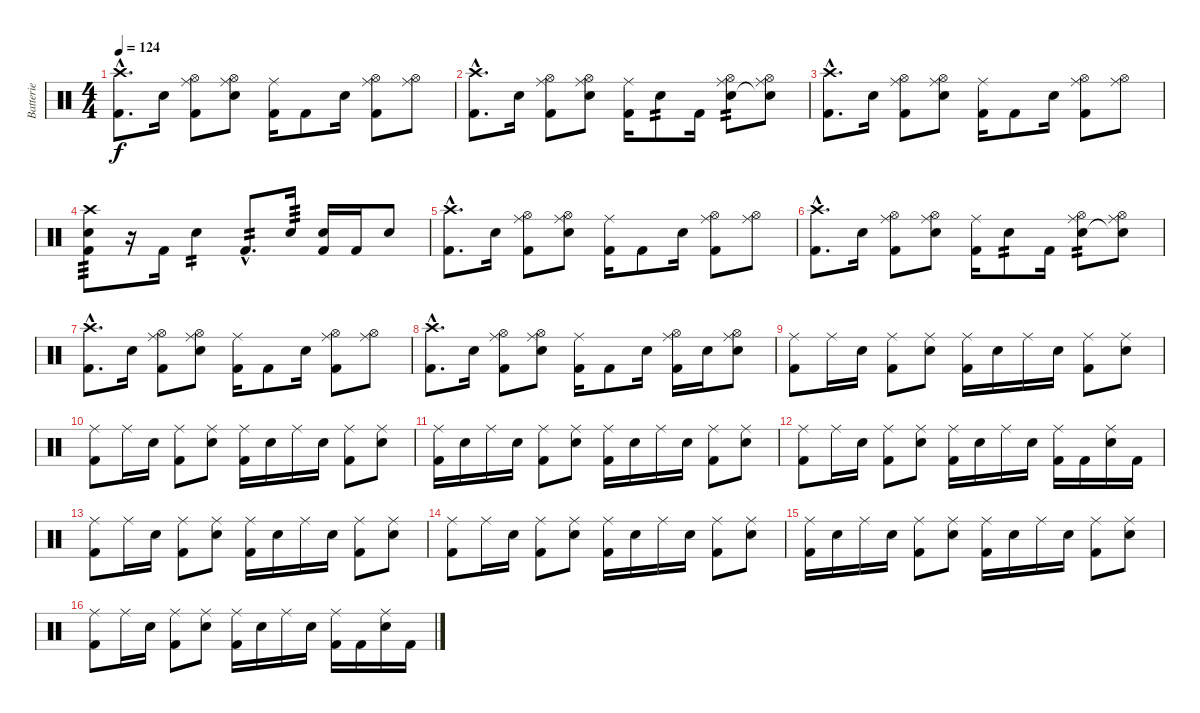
\track ("Batterie" "Batterie") {instrument percussion}
\staff {score}
\articulation defaults
\ts (4 4)
\tempo 124
\clef neutral
\ks c
("Crash high (hit)"{hac} "Kick (hit) 2"{hac}).8{d dy f} "Electric Snare (hit)".16 ("Ride (middle)" "Hi-Hat (open)" "Kick (hit) 2").8 ("Ride (middle)" "Hi-Hat (open)" "Electric Snare (hit)").8 ("Ride (middle)" "Kick (hit) 2").16 "Kick (hit) 2".8 "Electric Snare (hit)".16 ("Ride (middle)" "Hi-Hat (open)" "Kick (hit) 2").8 ("Ride (middle)" "Hi-Hat (open)").8 |
("Crash high (hit)"{hac} "Kick (hit) 2"{hac}).8{d} "Electric Snare (hit)".16 ("Ride (middle)" "Hi-Hat (open)" "Kick (hit) 2").8 ("Ride (middle)" "Hi-Hat (open)" "Electric Snare (hit)").8 ("Ride (middle)" "Kick (hit) 2").16 "Electric Snare (hit)".8{tp 2} "Kick (hit) 2".16 ("Ride (middle)" "Hi-Hat (open)" "Electric Snare (hit)").8{tp 2} ("Ride (middle)" "Hi-Hat (open)" "Snare (hit)"{t}).8 |
("Crash high (hit)"{hac} "Kick (hit) 2"{hac}).8{d} "Electric Snare (hit)".16 ("Ride (middle)" "Hi-Hat (open)" "Kick (hit) 2").8 ("Ride (middle)" "Hi-Hat (open)" "Electric Snare (hit)").8 ("Ride (middle)" "Kick (hit) 2").16 "Kick (hit) 2".8 "Electric Snare (hit)".16 ("Ride (middle)" "Hi-Hat (open)" "Kick (hit) 2").8 ("Ride (middle)" "Hi-Hat (open)").8 |
("Crash high (hit)" "Electric Snare (hit)" "Kick (hit) 2").8{tp 3} r.16 "Kick (hit) 2".16 "Electric Snare (hit)".4{tp 2} "Kick (hit) 2"{hac}.8{d tp 2} "Electric Snare (hit)".16{tp 3} ("Electric Snare (hit)" "Kick (hit) 2").16 "Kick (hit) 2".16 "Electric Snare (hit)".8 |
("Crash high (hit)"{hac} "Kick (hit) 2"{hac}).8{d} "Electric Snare (hit)".16 ("Ride (middle)" "Hi-Hat (open)" "Kick (hit) 2").8 ("Ride (middle)" "Hi-Hat (open)" "Electric Snare (hit)").8 ("Ride (middle)" "Kick (hit) 2").16 "Kick (hit) 2".8 "Electric Snare (hit)".16 ("Ride (middle)" "Hi-Hat (open)" "Kick (hit) 2").8 ("Ride (middle)" "Hi-Hat (open)").8 |
("Crash high (hit)"{hac} "Kick (hit) 2"{hac}).8{d} "Electric Snare (hit)".16 ("Ride (middle)" "Hi-Hat (open)" "Kick (hit) 2").8 ("Ride (middle)" "Hi-Hat (open)" "Electric Snare (hit)").8 ("Ride (middle)" "Kick (hit) 2").16 "Electric Snare (hit)".8{tp 2} "Kick (hit) 2".16 ("Ride (middle)" "Hi-Hat (open)" "Electric Snare (hit)").8{tp 2} ("Ride (middle)" "Hi-Hat (open)" "Snare (hit)"{t}).8 |
("Crash high (hit)"{hac} "Kick (hit) 2"{hac}).8{d} "Electric Snare (hit)".16 ("Ride (middle)" "Hi-Hat (open)" "Kick (hit) 2").8 ("Ride (middle)" "Hi-Hat (open)" "Electric Snare (hit)").8 ("Ride (middle)" "Kick (hit) 2").16 "Kick (hit) 2".8 "Electric Snare (hit)".16 ("Ride (middle)" "Hi-Hat (open)" "Kick (hit) 2").8 ("Ride (middle)" "Hi-Hat (open)").8 |
("Crash high (hit)"{hac} "Kick (hit) 2"{hac}).8{d} "Electric Snare (hit)".16 ("Ride (middle)" "Hi-Hat (open)" "Kick (hit) 2").8 ("Ride (middle)" "Hi-Hat (open)" "Electric Snare (hit)").8 ("Ride (middle)" "Kick (hit) 2").16 "Kick (hit) 2".8 "Electric Snare (hit)".16 ("Ride (middle)" "Hi-Hat (open)" "Kick (hit) 2").16 "Electric Snare (hit)".16 ("Ride (middle)" "Hi-Hat (open)" "Electric Snare (hit)").8 |
("Ride (middle)" "Kick (hit) 2").8 "Ride (middle)".16 "Electric Snare (hit)".16 ("Ride (middle)" "Kick (hit) 2").8 ("Ride (middle)" "Electric Snare (hit)").8 ("Ride (middle)" "Kick (hit) 2").16 "Electric Snare (hit)".16 "Ride (middle)".16 "Electric Snare (hit)".16 ("Ride (middle)" "Kick (hit) 2").8 ("Ride (middle)" "Electric Snare (hit)").8 |
("Ride (middle)" "Kick (hit) 2").8 "Ride (middle)".16 "Electric Snare (hit)".16 ("Ride (middle)" "Kick (hit) 2").8 ("Ride (middle)" "Electric Snare (hit)").8 ("Ride (middle)" "Kick (hit) 2").16 "Electric Snare (hit)".16 "Ride (middle)".16 "Electric Snare (hit)".16 ("Ride (middle)" "Kick (hit) 2").8 ("Ride (middle)" "Electric Snare (hit)").8 |
("Ride (middle)" "Kick (hit) 2").16 "Electric Snare (hit)".16 "Ride (middle)".16 "Electric Snare (hit)".16 ("Ride (middle)" "Kick (hit) 2").8 ("Ride (middle)" "Electric Snare (hit)").8 ("Ride (middle)" "Kick (hit) 2").16 "Electric Snare (hit)".16 "Ride (middle)".16 "Electric Snare (hit)".16 ("Ride (middle)" "Kick (hit) 2").8 ("Ride (middle)" "Electric Snare (hit)").8 |
("Ride (middle)" "Kick (hit) 2").8 "Ride (middle)".16 "Electric Snare (hit)".16 ("Ride (middle)" "Kick (hit) 2").8 ("Ride (middle)" "Electric Snare (hit)").8 ("Ride (middle)" "Kick (hit) 2").16 "Electric Snare (hit)".16 "Ride (middle)".16 "Electric Snare (hit)".16 ("Ride (middle)" "Kick (hit) 2").16 "Kick (hit) 2".16 ("Ride (middle)" "Electric Snare (hit)").16 "Kick (hit) 2".16 |
("Ride (middle)" "Kick (hit) 2").8 "Ride (middle)".16 "Electric Snare (hit)".16 ("Ride (middle)" "Kick (hit) 2").8 ("Ride (middle)" "Electric Snare (hit)").8 ("Ride (middle)" "Kick (hit) 2").16 "Electric Snare (hit)".16 "Ride (middle)".16 "Electric Snare (hit)".16 ("Ride (middle)" "Kick (hit) 2").8 ("Ride (middle)" "Electric Snare (hit)").8 |
("Ride (middle)" "Kick (hit) 2").8 "Ride (middle)".16 "Electric Snare (hit)".16 ("Ride (middle)" "Kick (hit) 2").8 ("Ride (middle)" "Electric Snare (hit)").8 ("Ride (middle)" "Kick (hit) 2").16 "Electric Snare (hit)".16 "Ride (middle)".16 "Electric Snare (hit)".16 ("Ride (middle)" "Kick (hit) 2").8 ("Ride (middle)" "Electric Snare (hit)").8 |
("Ride (middle)" "Kick (hit) 2").16 "Electric Snare (hit)".16 "Ride (middle)".16 "Electric Snare (hit)".16 ("Ride (middle)" "Kick (hit) 2").8 ("Ride (middle)" "Electric Snare (hit)").8 ("Ride (middle)" "Kick (hit) 2").16 "Electric Snare (hit)".16 "Ride (middle)".16 "Electric Snare (hit)".16 ("Ride (middle)" "Kick (hit) 2").8 ("Ride (middle)" "Electric Snare (hit)").8 |
("Ride (middle)" "Kick (hit) 2").8 "Ride (middle)".16 "Electric Snare (hit)".16 ("Ride (middle)" "Kick (hit) 2").8 ("Ride (middle)" "Electric Snare (hit)").8 ("Ride (middle)" "Kick (hit) 2").16 "Electric Snare (hit)".16 "Ride (middle)".16 "Electric Snare (hit)".16 ("Ride (middle)" "Kick (hit) 2").16 "Kick (hit) 2".16 ("Ride (middle)" "Electric Snare (hit)").16 "Kick (hit) 2".16
